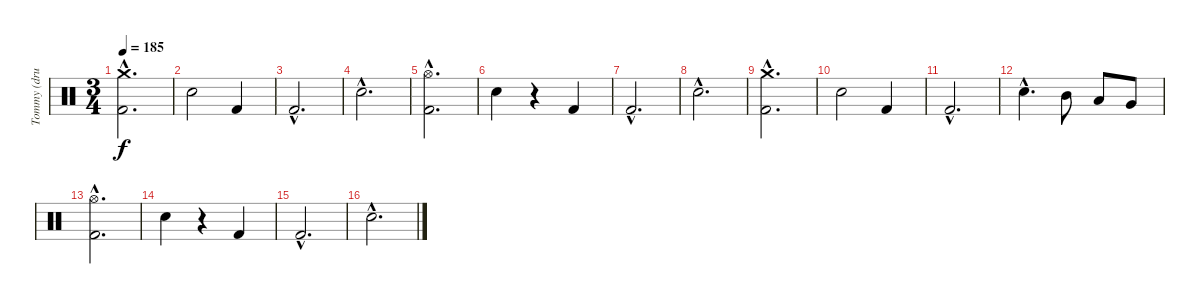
\track ("Tommy (drums)" "Tommy (dru") {instrument percussion}
\staff {score}
\articulation defaults
\ts (3 4)
\tempo 185
\clef neutral
\ks c
("Crash medium (hit)"{hac} "Kick (hit) 2"{hac}).2{d dy f} |
"Electric Snare (hit)".2 "Kick (hit) 2".4 |
"Kick (hit) 2"{hac}.2{d} |
"Electric Snare (hit)"{hac}.2{d} |
("Hi-Hat (open)"{hac} "Kick (hit) 2"{hac}).2{d} |
"Electric Snare (hit)".4 r.4 "Kick (hit) 2".4 |
"Kick (hit) 2"{hac}.2{d} |
"Electric Snare (hit)"{hac}.2{d} |
("Crash medium (hit)"{hac} "Kick (hit) 2"{hac}).2{d} |
"Electric Snare (hit)".2 "Kick (hit) 2".4 |
"Kick (hit) 2"{hac}.2{d} |
"Electric Snare (hit)"{hac}.4{d} "Mid Tom (hit)".8 "Low Tom (hit)".8 "Very Low Tom (hit)".8 |
("Hi-Hat (open)"{hac} "Kick (hit) 2"{hac}).2{d} |
"Electric Snare (hit)".4 r.4 "Kick (hit) 2".4 |
"Kick (hit) 2"{hac}.2{d} |
"Electric Snare (hit)"{hac}.2{d}
